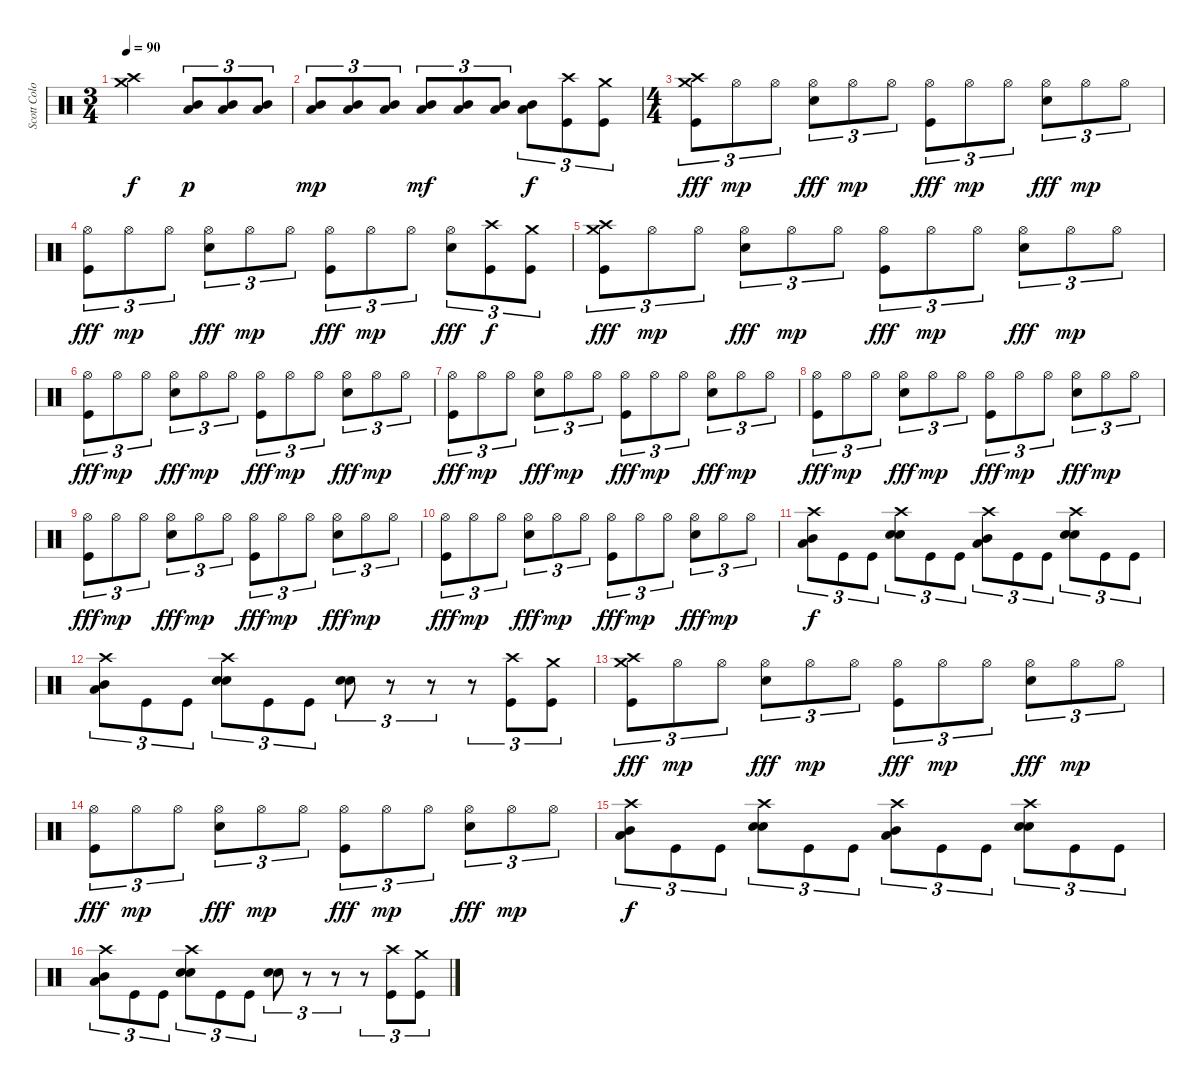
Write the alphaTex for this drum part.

\track ("Scott Colombus" "Scott Colo") {instrument percussion}
\staff {score}
\articulation defaults
\ts (3 4)
\tempo 90
\clef neutral
\ks c
("Crash high (hit)"{t} "Crash medium (hit)"{t}).2{dy f} ("Mid Tom (hit)" "Low Tom (hit)").8{tu (3 2) dy p} ("Mid Tom (hit)" "Low Tom (hit)").8{tu (3 2)} ("Mid Tom (hit)" "Low Tom (hit)").8{tu (3 2)} |
("Mid Tom (hit)" "Low Tom (hit)").8{tu (3 2) dy mp} ("Mid Tom (hit)" "Low Tom (hit)").8{tu (3 2)} ("Mid Tom (hit)" "Low Tom (hit)").8{tu (3 2)} ("Mid Tom (hit)" "Low Tom (hit)").8{tu (3 2) dy mf} ("Mid Tom (hit)" "Low Tom (hit)").8{tu (3 2)} ("Mid Tom (hit)" "Low Tom (hit)").8{tu (3 2)} ("Mid Tom (hit)" "Low Tom (hit)").8{tu (3 2) dy f} ("Crash high (hit)" "Kick (hit)").8{tu (3 2)} ("Crash medium (hit)" "Kick (hit)").8{tu (3 2)} |
\ts (4 4)
("Crash high (hit)" "Crash medium (hit)" "Kick (hit)").8{tu (3 2) dy fff} "Hi-Hat (open)".8{tu (3 2) dy mp} "Hi-Hat (open)".8{tu (3 2)} ("Hi-Hat (open)" "Snare (hit) 2").8{tu (3 2) dy fff} "Hi-Hat (open)".8{tu (3 2) dy mp} "Hi-Hat (open)".8{tu (3 2)} ("Hi-Hat (open)" "Kick (hit)").8{tu (3 2) dy fff} "Hi-Hat (open)".8{tu (3 2) dy mp} "Hi-Hat (open)".8{tu (3 2)} ("Hi-Hat (open)" "Snare (hit) 2").8{tu (3 2) dy fff} "Hi-Hat (open)".8{tu (3 2) dy mp} "Hi-Hat (open)".8{tu (3 2)} |
("Hi-Hat (open)" "Kick (hit)").8{tu (3 2) dy fff} "Hi-Hat (open)".8{tu (3 2) dy mp} "Hi-Hat (open)".8{tu (3 2)} ("Hi-Hat (open)" "Snare (hit) 2").8{tu (3 2) dy fff} "Hi-Hat (open)".8{tu (3 2) dy mp} "Hi-Hat (open)".8{tu (3 2)} ("Hi-Hat (open)" "Kick (hit)").8{tu (3 2) dy fff} "Hi-Hat (open)".8{tu (3 2) dy mp} "Hi-Hat (open)".8{tu (3 2)} ("Hi-Hat (open)" "Snare (hit) 2").8{tu (3 2) dy fff} ("Crash high (hit)" "Kick (hit)").8{tu (3 2) dy f} ("Crash medium (hit)" "Kick (hit)").8{tu (3 2)} |
("Crash high (hit)" "Crash medium (hit)" "Kick (hit)").8{tu (3 2) dy fff} "Hi-Hat (open)".8{tu (3 2) dy mp} "Hi-Hat (open)".8{tu (3 2)} ("Hi-Hat (open)" "Snare (hit) 2").8{tu (3 2) dy fff} "Hi-Hat (open)".8{tu (3 2) dy mp} "Hi-Hat (open)".8{tu (3 2)} ("Hi-Hat (open)" "Kick (hit)").8{tu (3 2) dy fff} "Hi-Hat (open)".8{tu (3 2) dy mp} "Hi-Hat (open)".8{tu (3 2)} ("Hi-Hat (open)" "Snare (hit) 2").8{tu (3 2) dy fff} "Hi-Hat (open)".8{tu (3 2) dy mp} "Hi-Hat (open)".8{tu (3 2)} |
("Hi-Hat (open)" "Kick (hit)").8{tu (3 2) dy fff} "Hi-Hat (open)".8{tu (3 2) dy mp} "Hi-Hat (open)".8{tu (3 2)} ("Hi-Hat (open)" "Snare (hit) 2").8{tu (3 2) dy fff} "Hi-Hat (open)".8{tu (3 2) dy mp} "Hi-Hat (open)".8{tu (3 2)} ("Hi-Hat (open)" "Kick (hit)").8{tu (3 2) dy fff} "Hi-Hat (open)".8{tu (3 2) dy mp} "Hi-Hat (open)".8{tu (3 2)} ("Hi-Hat (open)" "Snare (hit) 2").8{tu (3 2) dy fff} "Hi-Hat (open)".8{tu (3 2) dy mp} "Hi-Hat (open)".8{tu (3 2)} |
("Hi-Hat (open)" "Kick (hit)").8{tu (3 2) dy fff} "Hi-Hat (open)".8{tu (3 2) dy mp} "Hi-Hat (open)".8{tu (3 2)} ("Hi-Hat (open)" "Snare (hit) 2").8{tu (3 2) dy fff} "Hi-Hat (open)".8{tu (3 2) dy mp} "Hi-Hat (open)".8{tu (3 2)} ("Hi-Hat (open)" "Kick (hit)").8{tu (3 2) dy fff} "Hi-Hat (open)".8{tu (3 2) dy mp} "Hi-Hat (open)".8{tu (3 2)} ("Hi-Hat (open)" "Snare (hit) 2").8{tu (3 2) dy fff} "Hi-Hat (open)".8{tu (3 2) dy mp} "Hi-Hat (open)".8{tu (3 2)} |
("Hi-Hat (open)" "Kick (hit)").8{tu (3 2) dy fff} "Hi-Hat (open)".8{tu (3 2) dy mp} "Hi-Hat (open)".8{tu (3 2)} ("Hi-Hat (open)" "Snare (hit) 2").8{tu (3 2) dy fff} "Hi-Hat (open)".8{tu (3 2) dy mp} "Hi-Hat (open)".8{tu (3 2)} ("Hi-Hat (open)" "Kick (hit)").8{tu (3 2) dy fff} "Hi-Hat (open)".8{tu (3 2) dy mp} "Hi-Hat (open)".8{tu (3 2)} ("Hi-Hat (open)" "Snare (hit) 2").8{tu (3 2) dy fff} "Hi-Hat (open)".8{tu (3 2) dy mp} "Hi-Hat (open)".8{tu (3 2)} |
("Hi-Hat (open)" "Kick (hit)").8{tu (3 2) dy fff} "Hi-Hat (open)".8{tu (3 2) dy mp} "Hi-Hat (open)".8{tu (3 2)} ("Hi-Hat (open)" "Snare (hit) 2").8{tu (3 2) dy fff} "Hi-Hat (open)".8{tu (3 2) dy mp} "Hi-Hat (open)".8{tu (3 2)} ("Hi-Hat (open)" "Kick (hit)").8{tu (3 2) dy fff} "Hi-Hat (open)".8{tu (3 2) dy mp} "Hi-Hat (open)".8{tu (3 2)} ("Hi-Hat (open)" "Snare (hit) 2").8{tu (3 2) dy fff} "Hi-Hat (open)".8{tu (3 2) dy mp} "Hi-Hat (open)".8{tu (3 2)} |
("Hi-Hat (open)" "Kick (hit)").8{tu (3 2) dy fff} "Hi-Hat (open)".8{tu (3 2) dy mp} "Hi-Hat (open)".8{tu (3 2)} ("Hi-Hat (open)" "Snare (hit) 2").8{tu (3 2) dy fff} "Hi-Hat (open)".8{tu (3 2) dy mp} "Hi-Hat (open)".8{tu (3 2)} ("Hi-Hat (open)" "Kick (hit)").8{tu (3 2) dy fff} "Hi-Hat (open)".8{tu (3 2) dy mp} "Hi-Hat (open)".8{tu (3 2)} ("Hi-Hat (open)" "Snare (hit) 2").8{tu (3 2) dy fff} "Hi-Hat (open)".8{tu (3 2) dy mp} "Hi-Hat (open)".8{tu (3 2)} |
("Crash high (hit)" "Low Tom (hit)" "Mid Tom (hit)").8{tu (3 2) dy f} "Kick (hit)".8{tu (3 2)} "Kick (hit)".8{tu (3 2)} ("Crash high (hit)" "Snare (hit) 2" "Snare (hit) 2").8{tu (3 2)} "Kick (hit)".8{tu (3 2)} "Kick (hit)".8{tu (3 2)} ("Crash high (hit)" "Mid Tom (hit)" "Low Tom (hit)").8{tu (3 2)} "Kick (hit)".8{tu (3 2)} "Kick (hit)".8{tu (3 2)} ("Crash high (hit)" "Snare (hit) 2" "Snare (hit) 2").8{tu (3 2)} "Kick (hit)".8{tu (3 2)} "Kick (hit)".8{tu (3 2)} |
("Crash high (hit)" "Low Tom (hit)" "Mid Tom (hit)").8{tu (3 2)} "Kick (hit)".8{tu (3 2)} "Kick (hit)".8{tu (3 2)} ("Crash high (hit)" "Snare (hit) 2" "Snare (hit) 2").8{tu (3 2)} "Kick (hit)".8{tu (3 2)} "Kick (hit)".8{tu (3 2)} ("Snare (hit) 2" "Snare (hit) 2").8{tu (3 2)} r.8{tu (3 2)} r.8{tu (3 2)} r.8{tu (3 2)} ("Crash high (hit)" "Kick (hit)").8{tu (3 2)} ("Crash medium (hit)" "Kick (hit)").8{tu (3 2)} |
("Crash high (hit)" "Crash medium (hit)" "Kick (hit)").8{tu (3 2) dy fff} "Hi-Hat (open)".8{tu (3 2) dy mp} "Hi-Hat (open)".8{tu (3 2)} ("Hi-Hat (open)" "Snare (hit) 2").8{tu (3 2) dy fff} "Hi-Hat (open)".8{tu (3 2) dy mp} "Hi-Hat (open)".8{tu (3 2)} ("Hi-Hat (open)" "Kick (hit)").8{tu (3 2) dy fff} "Hi-Hat (open)".8{tu (3 2) dy mp} "Hi-Hat (open)".8{tu (3 2)} ("Hi-Hat (open)" "Snare (hit) 2").8{tu (3 2) dy fff} "Hi-Hat (open)".8{tu (3 2) dy mp} "Hi-Hat (open)".8{tu (3 2)} |
("Hi-Hat (open)" "Kick (hit)").8{tu (3 2) dy fff} "Hi-Hat (open)".8{tu (3 2) dy mp} "Hi-Hat (open)".8{tu (3 2)} ("Hi-Hat (open)" "Snare (hit) 2").8{tu (3 2) dy fff} "Hi-Hat (open)".8{tu (3 2) dy mp} "Hi-Hat (open)".8{tu (3 2)} ("Hi-Hat (open)" "Kick (hit)").8{tu (3 2) dy fff} "Hi-Hat (open)".8{tu (3 2) dy mp} "Hi-Hat (open)".8{tu (3 2)} ("Hi-Hat (open)" "Snare (hit) 2").8{tu (3 2) dy fff} "Hi-Hat (open)".8{tu (3 2) dy mp} "Hi-Hat (open)".8{tu (3 2)} |
("Crash high (hit)" "Low Tom (hit)" "Mid Tom (hit)").8{tu (3 2) dy f} "Kick (hit)".8{tu (3 2)} "Kick (hit)".8{tu (3 2)} ("Crash high (hit)" "Snare (hit) 2" "Snare (hit) 2").8{tu (3 2)} "Kick (hit)".8{tu (3 2)} "Kick (hit)".8{tu (3 2)} ("Crash high (hit)" "Mid Tom (hit)" "Low Tom (hit)").8{tu (3 2)} "Kick (hit)".8{tu (3 2)} "Kick (hit)".8{tu (3 2)} ("Crash high (hit)" "Snare (hit) 2" "Snare (hit) 2").8{tu (3 2)} "Kick (hit)".8{tu (3 2)} "Kick (hit)".8{tu (3 2)} |
("Crash high (hit)" "Low Tom (hit)" "Mid Tom (hit)").8{tu (3 2)} "Kick (hit)".8{tu (3 2)} "Kick (hit)".8{tu (3 2)} ("Crash high (hit)" "Snare (hit) 2" "Snare (hit) 2").8{tu (3 2)} "Kick (hit)".8{tu (3 2)} "Kick (hit)".8{tu (3 2)} ("Snare (hit) 2" "Snare (hit) 2").8{tu (3 2)} r.8{tu (3 2)} r.8{tu (3 2)} r.8{tu (3 2)} ("Crash high (hit)" "Kick (hit)").8{tu (3 2)} ("Crash medium (hit)" "Kick (hit)").8{tu (3 2)}
